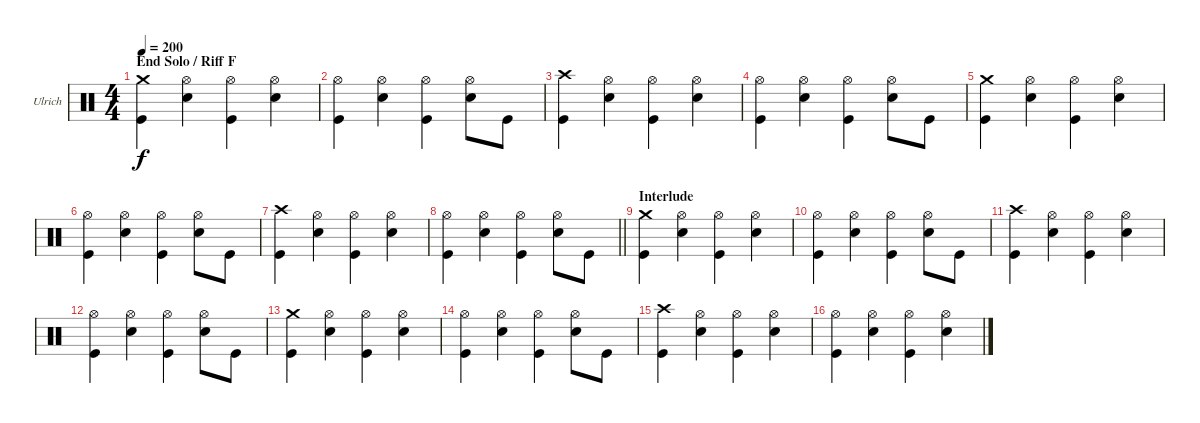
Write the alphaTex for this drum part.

\bracketExtendMode groupsimilarinstruments
\firstSystemTrackNameOrientation horizontal
\otherSystemsTrackNameOrientation horizontal
\track ("Drumkit" "Ulrich") {instrument percussion}
\staff {score}
\articulation defaults
\ts (4 4)
\section ("" "End Solo / Riff F")
\tempo 200
\clef neutral
\ks c
("Crash medium (hit)" "Kick (hit)").4{dy f} ("Hi-Hat (open)" "Snare (hit) 2").4 ("Hi-Hat (open)" "Kick (hit)").4 ("Hi-Hat (open)" "Snare (hit) 2").4 |
("Hi-Hat (open)" "Kick (hit)").4 ("Hi-Hat (open)" "Snare (hit) 2").4 ("Hi-Hat (open)" "Kick (hit)").4 ("Hi-Hat (open)" "Snare (hit) 2").8 "Kick (hit)".8 |
("Crash high (hit)" "Kick (hit)").4 ("Hi-Hat (open)" "Snare (hit) 2").4 ("Hi-Hat (open)" "Kick (hit)").4 ("Hi-Hat (open)" "Snare (hit) 2").4 |
("Hi-Hat (open)" "Kick (hit)").4 ("Hi-Hat (open)" "Snare (hit) 2").4 ("Hi-Hat (open)" "Kick (hit)").4 ("Hi-Hat (open)" "Snare (hit) 2").8 "Kick (hit)".8 |
("Crash medium (hit)" "Kick (hit)").4 ("Hi-Hat (open)" "Snare (hit) 2").4 ("Hi-Hat (open)" "Kick (hit)").4 ("Hi-Hat (open)" "Snare (hit) 2").4 |
("Hi-Hat (open)" "Kick (hit)").4 ("Hi-Hat (open)" "Snare (hit) 2").4 ("Hi-Hat (open)" "Kick (hit)").4 ("Hi-Hat (open)" "Snare (hit) 2").8 "Kick (hit)".8 |
("Crash high (hit)" "Kick (hit)").4 ("Hi-Hat (open)" "Snare (hit) 2").4 ("Hi-Hat (open)" "Kick (hit)").4 ("Hi-Hat (open)" "Snare (hit) 2").4 |
\barLineRight lightlight
("Hi-Hat (open)" "Kick (hit)").4 ("Hi-Hat (open)" "Snare (hit) 2").4 ("Hi-Hat (open)" "Kick (hit)").4 ("Hi-Hat (open)" "Snare (hit) 2").8 "Kick (hit)".8 |
\section ("" "Interlude")
("Crash medium (hit)" "Kick (hit)").4 ("Hi-Hat (open)" "Snare (hit) 2").4 ("Hi-Hat (open)" "Kick (hit)").4 ("Hi-Hat (open)" "Snare (hit) 2").4 |
("Hi-Hat (open)" "Kick (hit)").4 ("Hi-Hat (open)" "Snare (hit) 2").4 ("Hi-Hat (open)" "Kick (hit)").4 ("Hi-Hat (open)" "Snare (hit) 2").8 "Kick (hit)".8 |
("Crash high (hit)" "Kick (hit)").4 ("Hi-Hat (open)" "Snare (hit) 2").4 ("Hi-Hat (open)" "Kick (hit)").4 ("Hi-Hat (open)" "Snare (hit) 2").4 |
("Hi-Hat (open)" "Kick (hit)").4 ("Hi-Hat (open)" "Snare (hit) 2").4 ("Hi-Hat (open)" "Kick (hit)").4 ("Hi-Hat (open)" "Snare (hit) 2").8 "Kick (hit)".8 |
("Crash medium (hit)" "Kick (hit)").4 ("Hi-Hat (open)" "Snare (hit) 2").4 ("Hi-Hat (open)" "Kick (hit)").4 ("Hi-Hat (open)" "Snare (hit) 2").4 |
("Hi-Hat (open)" "Kick (hit)").4 ("Hi-Hat (open)" "Snare (hit) 2").4 ("Hi-Hat (open)" "Kick (hit)").4 ("Hi-Hat (open)" "Snare (hit) 2").8 "Kick (hit)".8 |
("Crash high (hit)" "Kick (hit)").4 ("Hi-Hat (open)" "Snare (hit) 2").4 ("Hi-Hat (open)" "Kick (hit)").4 ("Hi-Hat (open)" "Snare (hit) 2").4 |
("Hi-Hat (open)" "Kick (hit)").4 ("Hi-Hat (open)" "Snare (hit) 2").4 ("Hi-Hat (open)" "Kick (hit)").4 ("Hi-Hat (open)" "Snare (hit) 2").4
